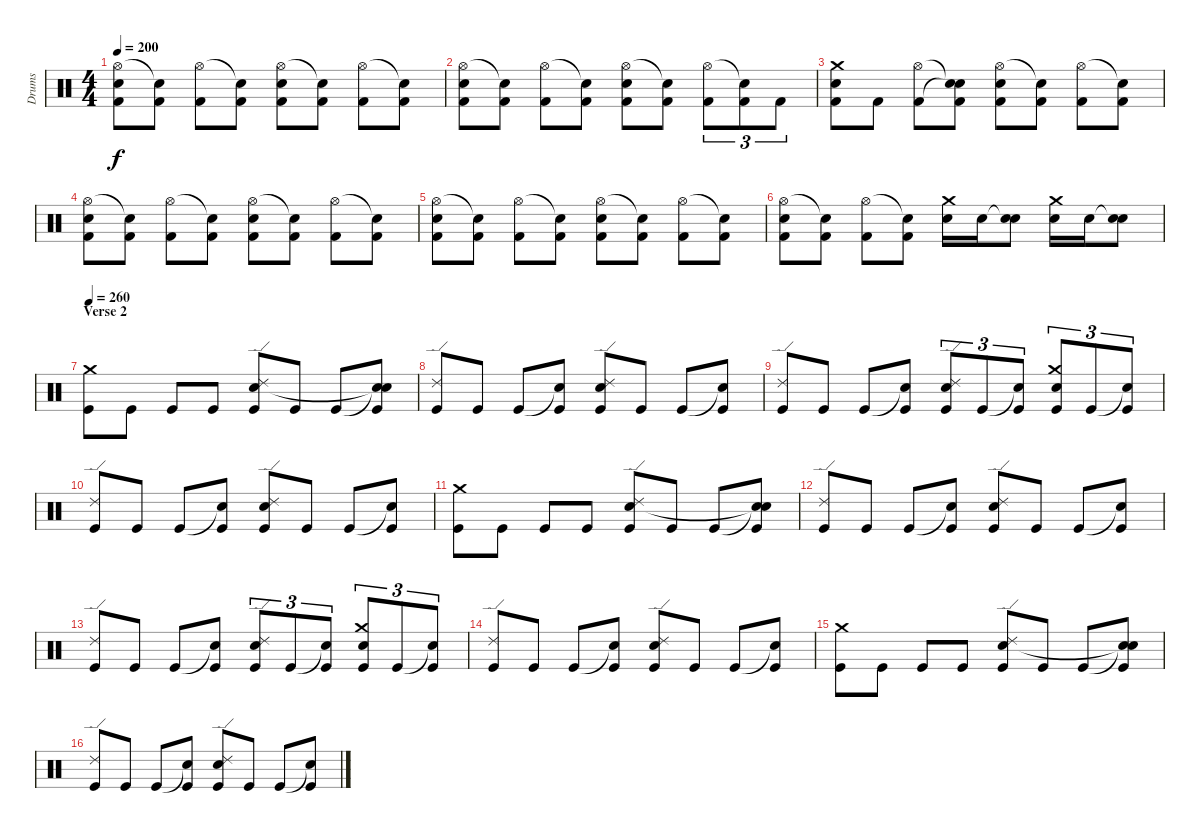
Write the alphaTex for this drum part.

\track ("Drums" "Drums") {instrument percussion}
\staff {score}
\articulation defaults
\ts (4 4)
\tempo 200
\clef neutral
\ks c
("Hi-Hat (open)" "Electric Snare (hit)" "Kick (hit) 2").8{dy f} ("Snare (hit)"{t} "Kick (hit) 2").8 ("Hi-Hat (open)" "Kick (hit) 2").8 ("Snare (hit)"{t} "Kick (hit) 2").8 ("Hi-Hat (open)" "Electric Snare (hit)" "Kick (hit) 2").8 ("Snare (hit)"{t} "Kick (hit) 2").8 ("Hi-Hat (open)" "Kick (hit) 2").8 ("Snare (hit)"{t} "Kick (hit) 2").8 |
("Hi-Hat (open)" "Electric Snare (hit)" "Kick (hit) 2").8 ("Snare (hit)"{t} "Kick (hit) 2").8 ("Hi-Hat (open)" "Kick (hit) 2").8 ("Snare (hit)"{t} "Kick (hit) 2").8 ("Hi-Hat (open)" "Electric Snare (hit)" "Kick (hit) 2").8 ("Snare (hit)"{t} "Kick (hit) 2").8 ("Hi-Hat (open)" "Kick (hit) 2").8{tu (3 2)} ("Snare (hit)"{t} "Kick (hit) 2").8{tu (3 2)} "Kick (hit) 2".8{tu (3 2)} |
("Crash medium (hit)" "Electric Snare (hit)" "Kick (hit) 2").8 "Kick (hit) 2".8 ("Hi-Hat (open)" "Kick (hit) 2").8 ("Snare (hit)"{t} "Snare (hit)"{t} "Kick (hit) 2").8 ("Hi-Hat (open)" "Electric Snare (hit)" "Kick (hit) 2").8 ("Snare (hit)"{t} "Kick (hit) 2").8 ("Hi-Hat (open)" "Kick (hit) 2").8 ("Snare (hit)"{t} "Kick (hit) 2").8 |
("Hi-Hat (open)" "Electric Snare (hit)" "Kick (hit) 2").8 ("Snare (hit)"{t} "Kick (hit) 2").8 ("Hi-Hat (open)" "Kick (hit) 2").8 ("Snare (hit)"{t} "Kick (hit) 2").8 ("Hi-Hat (open)" "Electric Snare (hit)" "Kick (hit) 2").8 ("Snare (hit)"{t} "Kick (hit) 2").8 ("Hi-Hat (open)" "Kick (hit) 2").8 ("Snare (hit)"{t} "Kick (hit) 2").8 |
("Hi-Hat (open)" "Electric Snare (hit)" "Kick (hit) 2").8 ("Snare (hit)"{t} "Kick (hit) 2").8 ("Hi-Hat (open)" "Kick (hit) 2").8 ("Snare (hit)"{t} "Kick (hit) 2").8 ("Hi-Hat (open)" "Electric Snare (hit)" "Kick (hit) 2").8 ("Snare (hit)"{t} "Kick (hit) 2").8 ("Hi-Hat (open)" "Kick (hit) 2").8 ("Snare (hit)"{t} "Kick (hit) 2").8 |
("Hi-Hat (open)" "Electric Snare (hit)" "Kick (hit) 2").8 ("Snare (hit)"{t} "Kick (hit) 2").8 ("Hi-Hat (open)" "Kick (hit) 2").8 ("Snare (hit)"{t} "Kick (hit) 2").8 ("Crash medium (hit)" "Electric Snare (hit)").16 "Electric Snare (hit)".16 ("Snare (hit)"{t} "Electric Snare (hit)").8 ("Crash medium (hit)" "Electric Snare (hit)").16 "Electric Snare (hit)".16 ("Snare (hit)"{t} "Electric Snare (hit)").8 |
\section ("" "Verse 2")
\tempo 260
("Crash medium (hit)" "Kick (hit)").8 "Kick (hit)".8 "Kick (hit)".8 "Kick (hit)".8 ("Ride (edge) 2" "Electric Snare (hit)" "Kick (hit)").8 "Kick (hit)".8 "Kick (hit)".8 ("Snare (hit)"{t} "Snare (hit)"{t} "Kick (hit)").8 |
("Ride (edge) 2" "Kick (hit)").8 "Kick (hit)".8 "Kick (hit)".8 ("Snare (hit)"{t} "Kick (hit)").8 ("Ride (edge) 2" "Electric Snare (hit)" "Kick (hit)").8 "Kick (hit)".8 "Kick (hit)".8 ("Snare (hit)"{t} "Kick (hit)").8 |
("Ride (edge) 2" "Kick (hit)").8 "Kick (hit)".8 "Kick (hit)".8 ("Snare (hit)"{t} "Kick (hit)").8 ("Ride (edge) 2" "Electric Snare (hit)" "Kick (hit)").8{tu (3 2)} "Kick (hit)".8{tu (3 2)} ("Snare (hit)"{t} "Kick (hit)").8{tu (3 2)} ("Crash medium (hit)" "Electric Snare (hit)" "Kick (hit)").8{tu (3 2)} "Kick (hit)".8{tu (3 2)} ("Snare (hit)"{t} "Kick (hit)").8{tu (3 2)} |
("Ride (edge) 2" "Kick (hit)").8 "Kick (hit)".8 "Kick (hit)".8 ("Snare (hit)"{t} "Kick (hit)").8 ("Ride (edge) 2" "Electric Snare (hit)" "Kick (hit)").8 "Kick (hit)".8 "Kick (hit)".8 ("Snare (hit)"{t} "Kick (hit)").8 |
("Crash medium (hit)" "Kick (hit)").8 "Kick (hit)".8 "Kick (hit)".8 "Kick (hit)".8 ("Ride (edge) 2" "Electric Snare (hit)" "Kick (hit)").8 "Kick (hit)".8 "Kick (hit)".8 ("Snare (hit)"{t} "Snare (hit)"{t} "Kick (hit)").8 |
("Ride (edge) 2" "Kick (hit)").8 "Kick (hit)".8 "Kick (hit)".8 ("Snare (hit)"{t} "Kick (hit)").8 ("Ride (edge) 2" "Electric Snare (hit)" "Kick (hit)").8 "Kick (hit)".8 "Kick (hit)".8 ("Snare (hit)"{t} "Kick (hit)").8 |
("Ride (edge) 2" "Kick (hit)").8 "Kick (hit)".8 "Kick (hit)".8 ("Snare (hit)"{t} "Kick (hit)").8 ("Ride (edge) 2" "Electric Snare (hit)" "Kick (hit)").8{tu (3 2)} "Kick (hit)".8{tu (3 2)} ("Snare (hit)"{t} "Kick (hit)").8{tu (3 2)} ("Crash medium (hit)" "Electric Snare (hit)" "Kick (hit)").8{tu (3 2)} "Kick (hit)".8{tu (3 2)} ("Snare (hit)"{t} "Kick (hit)").8{tu (3 2)} |
("Ride (edge) 2" "Kick (hit)").8 "Kick (hit)".8 "Kick (hit)".8 ("Snare (hit)"{t} "Kick (hit)").8 ("Ride (edge) 2" "Electric Snare (hit)" "Kick (hit)").8 "Kick (hit)".8 "Kick (hit)".8 ("Snare (hit)"{t} "Kick (hit)").8 |
("Crash medium (hit)" "Kick (hit)").8 "Kick (hit)".8 "Kick (hit)".8 "Kick (hit)".8 ("Ride (edge) 2" "Electric Snare (hit)" "Kick (hit)").8 "Kick (hit)".8 "Kick (hit)".8 ("Snare (hit)"{t} "Snare (hit)"{t} "Kick (hit)").8 |
("Ride (edge) 2" "Kick (hit)").8 "Kick (hit)".8 "Kick (hit)".8 ("Snare (hit)"{t} "Kick (hit)").8 ("Ride (edge) 2" "Electric Snare (hit)" "Kick (hit)").8 "Kick (hit)".8 "Kick (hit)".8 ("Snare (hit)"{t} "Kick (hit)").8
